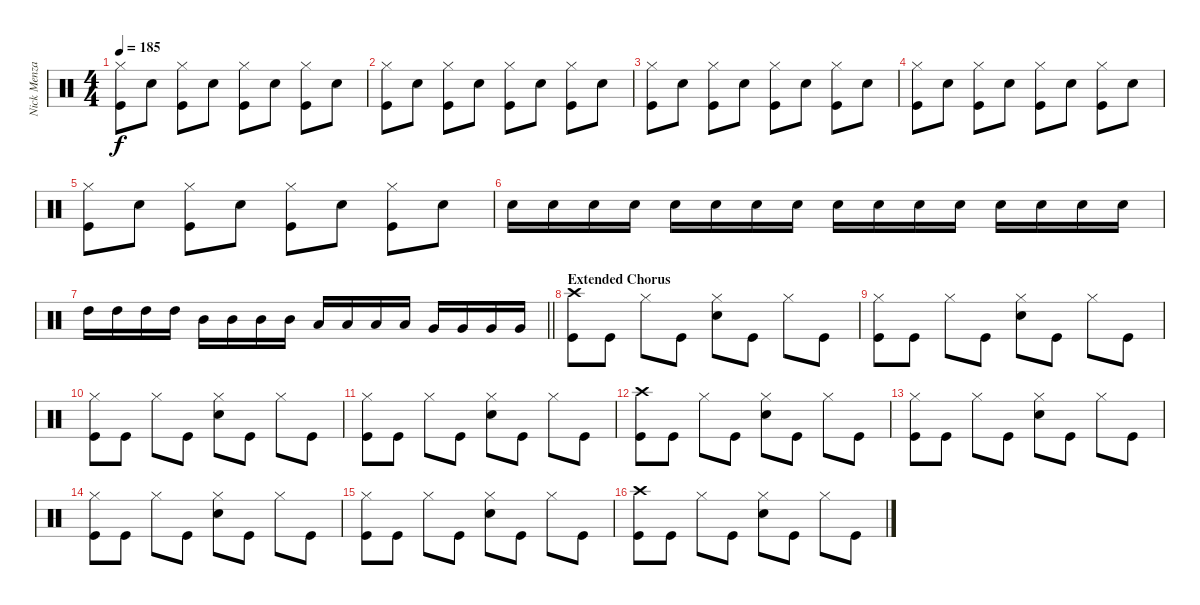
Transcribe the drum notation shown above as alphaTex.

\track ("Nick Menza" "Nick Menza") {instrument percussion}
\staff {score}
\articulation defaults
\ts (4 4)
\tempo 185
\clef neutral
\ks c
("Hi-Hat (closed)" "Kick (hit)").8{dy f} "Snare (hit) 2".8 ("Hi-Hat (closed)" "Kick (hit)").8 "Snare (hit) 2".8 ("Hi-Hat (closed)" "Kick (hit)").8 "Snare (hit) 2".8 ("Hi-Hat (closed)" "Kick (hit)").8 "Snare (hit) 2".8 |
("Hi-Hat (closed)" "Kick (hit)").8 "Snare (hit) 2".8 ("Hi-Hat (closed)" "Kick (hit)").8 "Snare (hit) 2".8 ("Hi-Hat (closed)" "Kick (hit)").8 "Snare (hit) 2".8 ("Hi-Hat (closed)" "Kick (hit)").8 "Snare (hit) 2".8 |
("Hi-Hat (closed)" "Kick (hit)").8 "Snare (hit) 2".8 ("Hi-Hat (closed)" "Kick (hit)").8 "Snare (hit) 2".8 ("Hi-Hat (closed)" "Kick (hit)").8 "Snare (hit) 2".8 ("Hi-Hat (closed)" "Kick (hit)").8 "Snare (hit) 2".8 |
("Hi-Hat (closed)" "Kick (hit)").8 "Snare (hit) 2".8 ("Hi-Hat (closed)" "Kick (hit)").8 "Snare (hit) 2".8 ("Hi-Hat (closed)" "Kick (hit)").8 "Snare (hit) 2".8 ("Hi-Hat (closed)" "Kick (hit)").8 "Snare (hit) 2".8 |
("Hi-Hat (closed)" "Kick (hit)").8 "Snare (hit) 2".8 ("Hi-Hat (closed)" "Kick (hit)").8 "Snare (hit) 2".8 ("Hi-Hat (closed)" "Kick (hit)").8 "Snare (hit) 2".8 ("Hi-Hat (closed)" "Kick (hit)").8 "Snare (hit) 2".8 |
"Snare (hit) 2".16 "Snare (hit) 2".16 "Snare (hit) 2".16 "Snare (hit) 2".16 "Snare (hit) 2".16 "Snare (hit) 2".16 "Snare (hit) 2".16 "Snare (hit) 2".16 "Snare (hit) 2".16 "Snare (hit) 2".16 "Snare (hit) 2".16 "Snare (hit) 2".16 "Snare (hit) 2".16 "Snare (hit) 2".16 "Snare (hit) 2".16 "Snare (hit) 2".16 |
\barLineRight lightlight "High Tom (hit)".16 "High Tom (hit)".16 "High Tom (hit)".16 "High Tom (hit)".16 "Mid Tom (hit)".16 "Mid Tom (hit)".16 "Mid Tom (hit)".16 "Mid Tom (hit)".16 "Low Tom (hit)".16 "Low Tom (hit)".16 "Low Tom (hit)".16 "Low Tom (hit)".16 "Very Low Tom (hit)".16 "Very Low Tom (hit)".16 "Very Low Tom (hit)".16 "Very Low Tom (hit)".16
|
\section ("" "Extended Chorus")
("Crash high (hit)" "Kick (hit)").8 "Kick (hit)".8 "Hi-Hat (closed)".8 "Kick (hit)".8 ("Hi-Hat (closed)" "Snare (hit) 2").8 "Kick (hit)".8 "Hi-Hat (closed)".8 "Kick (hit)".8 |
("Hi-Hat (closed)" "Kick (hit)").8 "Kick (hit)".8 "Hi-Hat (closed)".8 "Kick (hit)".8 ("Hi-Hat (closed)" "Snare (hit) 2").8 "Kick (hit)".8 "Hi-Hat (closed)".8 "Kick (hit)".8 |
("Hi-Hat (closed)" "Kick (hit)").8 "Kick (hit)".8 "Hi-Hat (closed)".8 "Kick (hit)".8 ("Hi-Hat (closed)" "Snare (hit) 2").8 "Kick (hit)".8 "Hi-Hat (closed)".8 "Kick (hit)".8 |
("Hi-Hat (closed)" "Kick (hit)").8 "Kick (hit)".8 "Hi-Hat (closed)".8 "Kick (hit)".8 ("Hi-Hat (closed)" "Snare (hit) 2").8 "Kick (hit)".8 "Hi-Hat (closed)".8 "Kick (hit)".8 |
("Crash high (hit)" "Kick (hit)").8 "Kick (hit)".8 "Hi-Hat (closed)".8 "Kick (hit)".8 ("Hi-Hat (closed)" "Snare (hit) 2").8 "Kick (hit)".8 "Hi-Hat (closed)".8 "Kick (hit)".8 |
("Hi-Hat (closed)" "Kick (hit)").8 "Kick (hit)".8 "Hi-Hat (closed)".8 "Kick (hit)".8 ("Hi-Hat (closed)" "Snare (hit) 2").8 "Kick (hit)".8 "Hi-Hat (closed)".8 "Kick (hit)".8 |
("Hi-Hat (closed)" "Kick (hit)").8 "Kick (hit)".8 "Hi-Hat (closed)".8 "Kick (hit)".8 ("Hi-Hat (closed)" "Snare (hit) 2").8 "Kick (hit)".8 "Hi-Hat (closed)".8 "Kick (hit)".8 |
("Hi-Hat (closed)" "Kick (hit)").8 "Kick (hit)".8 "Hi-Hat (closed)".8 "Kick (hit)".8 ("Hi-Hat (closed)" "Snare (hit) 2").8 "Kick (hit)".8 "Hi-Hat (closed)".8 "Kick (hit)".8 |
("Crash high (hit)" "Kick (hit)").8 "Kick (hit)".8 "Hi-Hat (closed)".8 "Kick (hit)".8 ("Hi-Hat (closed)" "Snare (hit) 2").8 "Kick (hit)".8 "Hi-Hat (closed)".8 "Kick (hit)".8
